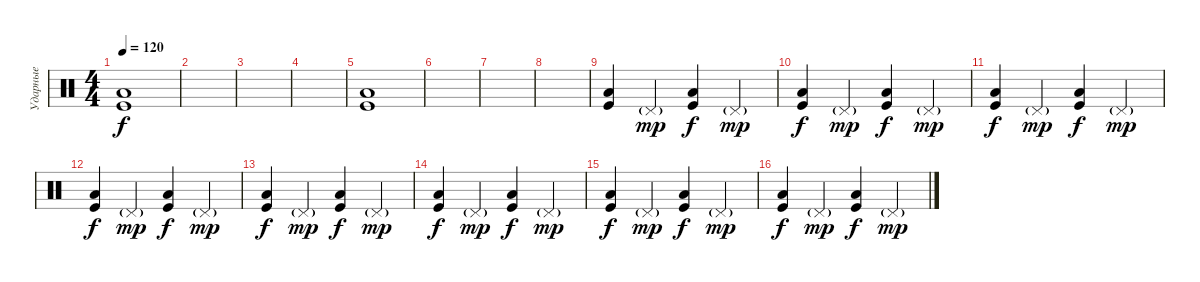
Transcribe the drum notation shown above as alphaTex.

\track ("Ударные" "Ударные") {instrument percussion}
\staff {score}
\articulation defaults
\ts (4 4)
\tempo 120
\clef neutral
\ks c
("Low Tom (hit)" "Kick (hit)").1{dy f} |
|
|
|
("Low Tom (hit)" "Kick (hit)").1 |
|
|
|
("Low Tom (hit)" "Kick (hit)").4 "Pedal Hi-Hat (hit)"{g}.4{dy mp} ("Low Tom (hit)" "Kick (hit)").4{dy f} "Pedal Hi-Hat (hit)"{g}.4{dy mp} |
("Low Tom (hit)" "Kick (hit)").4{dy f} "Pedal Hi-Hat (hit)"{g}.4{dy mp} ("Low Tom (hit)" "Kick (hit)").4{dy f} "Pedal Hi-Hat (hit)"{g}.4{dy mp} |
("Low Tom (hit)" "Kick (hit)").4{dy f} "Pedal Hi-Hat (hit)"{g}.4{dy mp} ("Low Tom (hit)" "Kick (hit)").4{dy f} "Pedal Hi-Hat (hit)"{g}.4{dy mp} |
("Low Tom (hit)" "Kick (hit)").4{dy f} "Pedal Hi-Hat (hit)"{g}.4{dy mp} ("Low Tom (hit)" "Kick (hit)").4{dy f} "Pedal Hi-Hat (hit)"{g}.4{dy mp} |
("Low Tom (hit)" "Kick (hit)").4{dy f} "Pedal Hi-Hat (hit)"{g}.4{dy mp} ("Low Tom (hit)" "Kick (hit)").4{dy f} "Pedal Hi-Hat (hit)"{g}.4{dy mp} |
("Low Tom (hit)" "Kick (hit)").4{dy f} "Pedal Hi-Hat (hit)"{g}.4{dy mp} ("Low Tom (hit)" "Kick (hit)").4{dy f} "Pedal Hi-Hat (hit)"{g}.4{dy mp} |
("Low Tom (hit)" "Kick (hit)").4{dy f} "Pedal Hi-Hat (hit)"{g}.4{dy mp} ("Low Tom (hit)" "Kick (hit)").4{dy f} "Pedal Hi-Hat (hit)"{g}.4{dy mp} |
("Low Tom (hit)" "Kick (hit)").4{dy f} "Pedal Hi-Hat (hit)"{g}.4{dy mp} ("Low Tom (hit)" "Kick (hit)").4{dy f} "Pedal Hi-Hat (hit)"{g}.4{dy mp}
